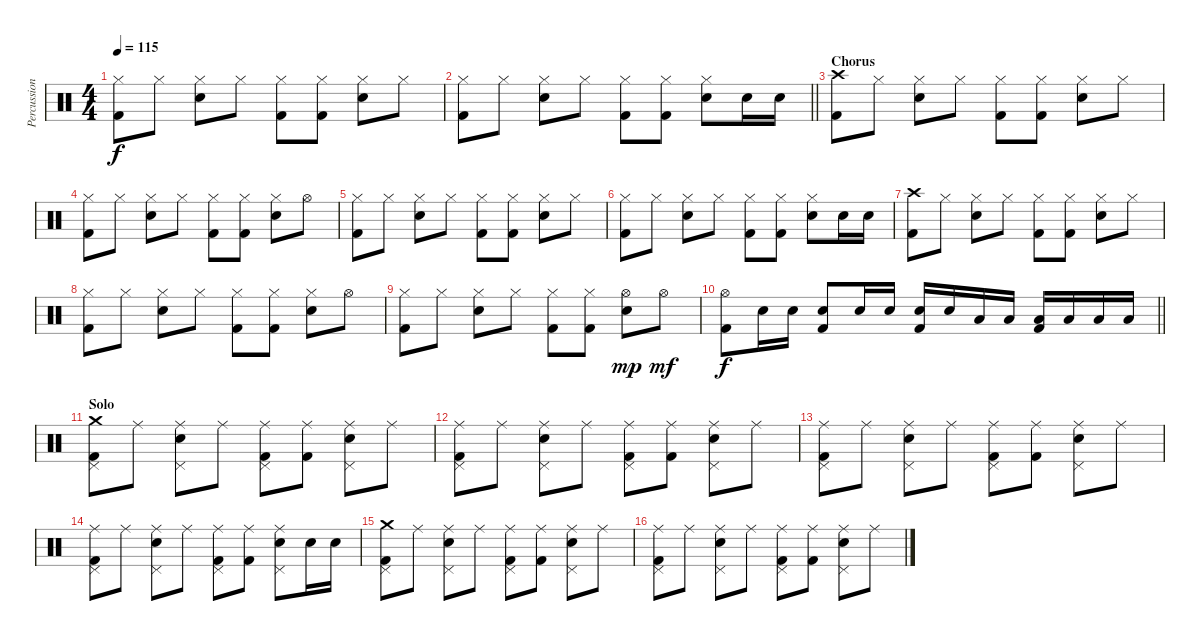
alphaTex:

\track ("Percussions" "Percussion") {instrument percussion}
\staff {score}
\articulation defaults
\ts (4 4)
\tempo 115
\clef neutral
\ks c
("Hi-Hat (closed)" "Kick (hit) 2").8{dy f} "Hi-Hat (closed)".8 ("Hi-Hat (closed)" "Electric Snare (hit)").8 "Hi-Hat (closed)".8 ("Hi-Hat (closed)" "Kick (hit) 2").8 ("Hi-Hat (closed)" "Kick (hit) 2").8 ("Hi-Hat (closed)" "Electric Snare (hit)").8 "Hi-Hat (closed)".8 |
\barLineRight lightlight
("Hi-Hat (closed)" "Kick (hit) 2").8 "Hi-Hat (closed)".8 ("Hi-Hat (closed)" "Electric Snare (hit)").8 "Hi-Hat (closed)".8 ("Hi-Hat (closed)" "Kick (hit) 2").8 ("Hi-Hat (closed)" "Kick (hit) 2").8 ("Hi-Hat (closed)" "Electric Snare (hit)").8 "Electric Snare (hit)".16 "Electric Snare (hit)".16 |
\section ("" "Chorus")
("Crash high (hit)" "Kick (hit) 2").8 "Hi-Hat (closed)".8 ("Hi-Hat (closed)" "Electric Snare (hit)").8 "Hi-Hat (closed)".8 ("Hi-Hat (closed)" "Kick (hit) 2").8 ("Hi-Hat (closed)" "Kick (hit) 2").8 ("Hi-Hat (closed)" "Electric Snare (hit)").8 "Hi-Hat (closed)".8 |
("Hi-Hat (closed)" "Kick (hit) 2").8 "Hi-Hat (closed)".8 ("Hi-Hat (closed)" "Electric Snare (hit)").8 "Hi-Hat (closed)".8 ("Hi-Hat (closed)" "Kick (hit) 2").8 ("Hi-Hat (closed)" "Kick (hit) 2").8 ("Hi-Hat (closed)" "Electric Snare (hit)").8 "Hi-Hat (open)".8 |
("Hi-Hat (closed)" "Kick (hit) 2").8 "Hi-Hat (closed)".8 ("Hi-Hat (closed)" "Electric Snare (hit)").8 "Hi-Hat (closed)".8 ("Hi-Hat (closed)" "Kick (hit) 2").8 ("Hi-Hat (closed)" "Kick (hit) 2").8 ("Hi-Hat (closed)" "Electric Snare (hit)").8 "Hi-Hat (closed)".8 |
("Hi-Hat (closed)" "Kick (hit) 2").8 "Hi-Hat (closed)".8 ("Hi-Hat (closed)" "Electric Snare (hit)").8 "Hi-Hat (closed)".8 ("Hi-Hat (closed)" "Kick (hit) 2").8 ("Hi-Hat (closed)" "Kick (hit) 2").8 ("Hi-Hat (closed)" "Electric Snare (hit)").8 "Electric Snare (hit)".16 "Electric Snare (hit)".16 |
("Crash high (hit)" "Kick (hit) 2").8 "Hi-Hat (closed)".8 ("Hi-Hat (closed)" "Electric Snare (hit)").8 "Hi-Hat (closed)".8 ("Hi-Hat (closed)" "Kick (hit) 2").8 ("Hi-Hat (closed)" "Kick (hit) 2").8 ("Hi-Hat (closed)" "Electric Snare (hit)").8 "Hi-Hat (closed)".8 |
("Hi-Hat (closed)" "Kick (hit) 2").8 "Hi-Hat (closed)".8 ("Hi-Hat (closed)" "Electric Snare (hit)").8 "Hi-Hat (closed)".8 ("Hi-Hat (closed)" "Kick (hit) 2").8 ("Hi-Hat (closed)" "Kick (hit) 2").8 ("Hi-Hat (closed)" "Electric Snare (hit)").8 "Hi-Hat (open)".8 |
("Hi-Hat (closed)" "Kick (hit) 2").8 "Hi-Hat (closed)".8 ("Hi-Hat (closed)" "Electric Snare (hit)").8 "Hi-Hat (closed)".8 ("Hi-Hat (closed)" "Kick (hit) 2").8 ("Hi-Hat (closed)" "Kick (hit) 2").8 ("Hi-Hat (open)" "Electric Snare (hit)").8{dy mp} "Hi-Hat (open)".8{dy mf} |
\barLineRight lightlight
("Hi-Hat (open)" "Kick (hit) 2").8{dy f} "Electric Snare (hit)".16 "Electric Snare (hit)".16 ("Kick (hit) 2" "Electric Snare (hit)").8 "Electric Snare (hit)".16 "Electric Snare (hit)".16 ("Kick (hit) 2" "Electric Snare (hit)").16 "Electric Snare (hit)".16 "Low Tom (hit)".16 "Low Tom (hit)".16 ("Kick (hit) 2" "Low Floor Tom (hit)").16 "Low Floor Tom (hit)".16 "Low Floor Tom (hit)".16 "Low Floor Tom (hit)".16 |
\section ("" "Solo")
("Pedal Hi-Hat (hit)" "Crash medium (hit)" "Kick (hit) 2").8 "Ride (middle)".8 ("Pedal Hi-Hat (hit)" "Ride (middle)" "Electric Snare (hit)").8 "Ride (middle)".8 ("Pedal Hi-Hat (hit)" "Ride (middle)" "Kick (hit) 2").8 ("Ride (middle)" "Kick (hit) 2").8 ("Pedal Hi-Hat (hit)" "Ride (middle)" "Electric Snare (hit)").8 "Ride (middle)".8 |
("Pedal Hi-Hat (hit)" "Ride (middle)" "Kick (hit) 2").8 "Ride (middle)".8 ("Pedal Hi-Hat (hit)" "Ride (middle)" "Electric Snare (hit)").8 "Ride (middle)".8 ("Pedal Hi-Hat (hit)" "Ride (middle)" "Kick (hit) 2").8 ("Ride (middle)" "Kick (hit) 2").8 ("Pedal Hi-Hat (hit)" "Ride (middle)" "Electric Snare (hit)").8 "Ride (middle)".8 |
("Pedal Hi-Hat (hit)" "Ride (middle)" "Kick (hit) 2").8 "Ride (middle)".8 ("Pedal Hi-Hat (hit)" "Ride (middle)" "Electric Snare (hit)").8 "Ride (middle)".8 ("Pedal Hi-Hat (hit)" "Ride (middle)" "Kick (hit) 2").8 ("Ride (middle)" "Kick (hit) 2").8 ("Pedal Hi-Hat (hit)" "Ride (middle)" "Electric Snare (hit)").8 "Ride (middle)".8 |
("Pedal Hi-Hat (hit)" "Ride (middle)" "Kick (hit) 2").8 "Ride (middle)".8 ("Pedal Hi-Hat (hit)" "Ride (middle)" "Electric Snare (hit)").8 "Ride (middle)".8 ("Pedal Hi-Hat (hit)" "Ride (middle)" "Kick (hit) 2").8 ("Ride (middle)" "Kick (hit) 2").8 ("Pedal Hi-Hat (hit)" "Ride (middle)" "Electric Snare (hit)").8 "Electric Snare (hit)".16 "Electric Snare (hit)".16 |
("Pedal Hi-Hat (hit)" "Crash medium (hit)" "Kick (hit) 2").8 "Ride (middle)".8 ("Pedal Hi-Hat (hit)" "Ride (middle)" "Electric Snare (hit)").8 "Ride (middle)".8 ("Pedal Hi-Hat (hit)" "Ride (middle)" "Kick (hit) 2").8 ("Ride (middle)" "Kick (hit) 2").8 ("Pedal Hi-Hat (hit)" "Ride (middle)" "Electric Snare (hit)").8 "Ride (middle)".8 |
("Pedal Hi-Hat (hit)" "Ride (middle)" "Kick (hit) 2").8 "Ride (middle)".8 ("Pedal Hi-Hat (hit)" "Ride (middle)" "Electric Snare (hit)").8 "Ride (middle)".8 ("Pedal Hi-Hat (hit)" "Ride (middle)" "Kick (hit) 2").8 ("Ride (middle)" "Kick (hit) 2").8 ("Pedal Hi-Hat (hit)" "Ride (middle)" "Electric Snare (hit)").8 "Ride (middle)".8
